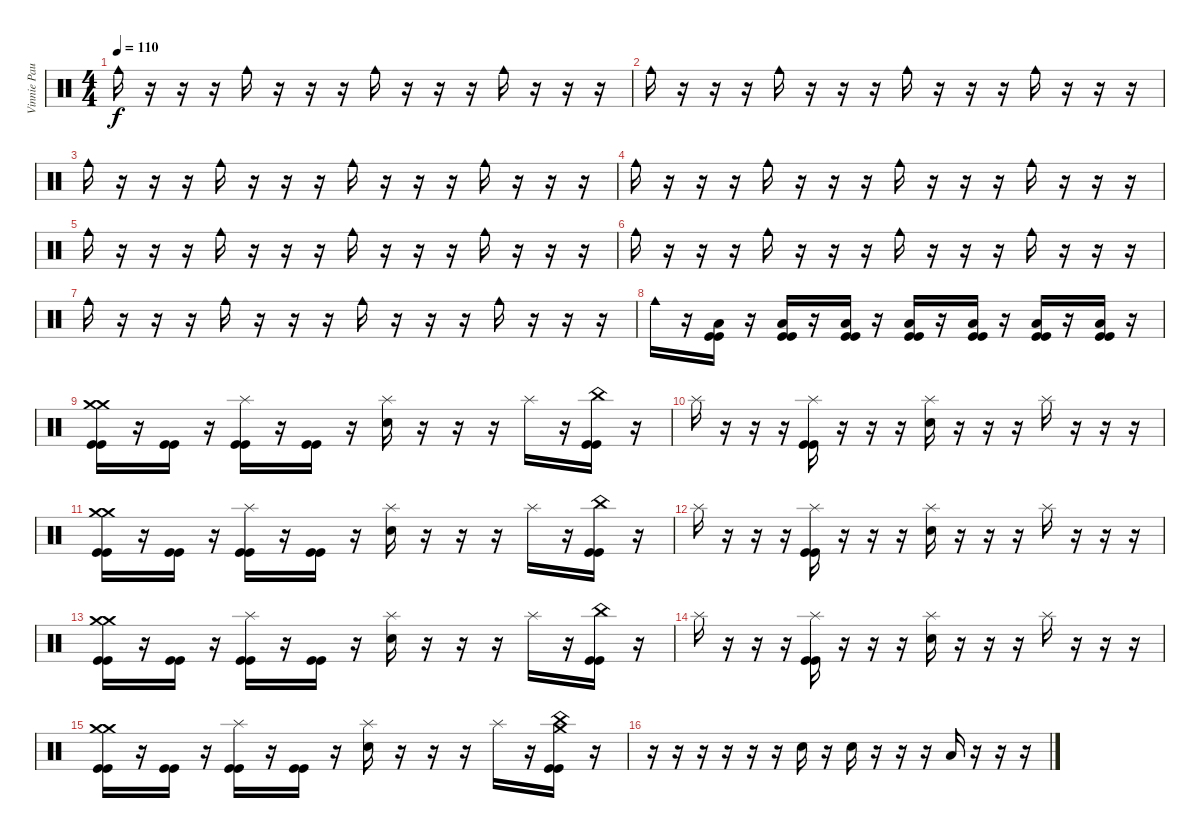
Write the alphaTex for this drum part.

\track ("Vinnie Paul " "Vinnie Pau") {instrument percussion}
\staff {score}
\articulation defaults
\ts (4 4)
\tempo 110
\clef neutral
\ks c "Cowbell medium (hit)".16{dy f}
r.16 r.16 r.16 "Cowbell medium (hit)".16 r.16 r.16 r.16 "Cowbell medium (hit)".16 r.16 r.16 r.16 "Cowbell medium (hit)".16 r.16 r.16 r.16 |
"Cowbell medium (hit)".16 r.16 r.16 r.16 "Cowbell medium (hit)".16 r.16 r.16 r.16 "Cowbell medium (hit)".16 r.16 r.16 r.16 "Cowbell medium (hit)".16 r.16 r.16 r.16 |
"Cowbell medium (hit)".16 r.16 r.16 r.16 "Cowbell medium (hit)".16 r.16 r.16 r.16 "Cowbell medium (hit)".16 r.16 r.16 r.16 "Cowbell medium (hit)".16 r.16 r.16 r.16 |
"Cowbell medium (hit)".16 r.16 r.16 r.16 "Cowbell medium (hit)".16 r.16 r.16 r.16 "Cowbell medium (hit)".16 r.16 r.16 r.16 "Cowbell medium (hit)".16 r.16 r.16 r.16 |
"Cowbell medium (hit)".16 r.16 r.16 r.16 "Cowbell medium (hit)".16 r.16 r.16 r.16 "Cowbell medium (hit)".16 r.16 r.16 r.16 "Cowbell medium (hit)".16 r.16 r.16 r.16 |
"Cowbell medium (hit)".16 r.16 r.16 r.16 "Cowbell medium (hit)".16 r.16 r.16 r.16 "Cowbell medium (hit)".16 r.16 r.16 r.16 "Cowbell medium (hit)".16 r.16 r.16 r.16 |
"Cowbell medium (hit)".16 r.16 r.16 r.16 "Cowbell medium (hit)".16 r.16 r.16 r.16 "Cowbell medium (hit)".16 r.16 r.16 r.16 "Cowbell medium (hit)".16 r.16 r.16 r.16 |
"Cowbell medium (hit)".16 r.16 ("Low Tom (hit)" "Kick (hit)" "Kick (hit)").16 r.16 ("Low Tom (hit)" "Kick (hit)" "Kick (hit)").16 r.16 ("Low Tom (hit)" "Kick (hit)" "Kick (hit)").16 r.16 ("Low Tom (hit)" "Kick (hit)" "Kick (hit)").16 r.16 ("Low Tom (hit)" "Kick (hit)" "Kick (hit)").16 r.16 ("Low Tom (hit)" "Kick (hit)" "Kick (hit)").16 r.16 ("Low Tom (hit)" "Kick (hit)" "Kick (hit)").16 r.16 |
("Crash medium (hit)" "Crash medium (hit)" "Kick (hit)" "Kick (hit)").16 r.16 ("Kick (hit)" "Kick (hit)").16 r.16 ("Splash (hit)" "Kick (hit)" "Kick (hit)").16 r.16 ("Kick (hit)" "Kick (hit)").16 r.16 ("Splash (hit)" "Snare (hit) 2").16 r.16 r.16 r.16 "Splash (hit)".16 r.16 ("China (hit)" "Kick (hit)" "Kick (hit)").16 r.16 |
"Splash (hit)".16 r.16 r.16 r.16 ("Splash (hit)" "Kick (hit)" "Kick (hit)").16 r.16 r.16 r.16 ("Splash (hit)" "Snare (hit) 2").16 r.16 r.16 r.16 "Splash (hit)".16 r.16 r.16 r.16 |
("Crash medium (hit)" "Crash medium (hit)" "Kick (hit)" "Kick (hit)").16 r.16 ("Kick (hit)" "Kick (hit)").16 r.16 ("Splash (hit)" "Kick (hit)" "Kick (hit)").16 r.16 ("Kick (hit)" "Kick (hit)").16 r.16 ("Splash (hit)" "Snare (hit) 2").16 r.16 r.16 r.16 "Splash (hit)".16 r.16 ("China (hit)" "Kick (hit)" "Kick (hit)").16 r.16 |
"Splash (hit)".16 r.16 r.16 r.16 ("Splash (hit)" "Kick (hit)" "Kick (hit)").16 r.16 r.16 r.16 ("Splash (hit)" "Snare (hit) 2").16 r.16 r.16 r.16 "Splash (hit)".16 r.16 r.16 r.16 |
("Crash medium (hit)" "Crash medium (hit)" "Kick (hit)" "Kick (hit)").16 r.16 ("Kick (hit)" "Kick (hit)").16 r.16 ("Splash (hit)" "Kick (hit)" "Kick (hit)").16 r.16 ("Kick (hit)" "Kick (hit)").16 r.16 ("Splash (hit)" "Snare (hit) 2").16 r.16 r.16 r.16 "Splash (hit)".16 r.16 ("China (hit)" "Kick (hit)" "Kick (hit)").16 r.16 |
"Splash (hit)".16 r.16 r.16 r.16 ("Splash (hit)" "Kick (hit)" "Kick (hit)").16 r.16 r.16 r.16 ("Splash (hit)" "Snare (hit) 2").16 r.16 r.16 r.16 "Splash (hit)".16 r.16 r.16 r.16 |
("Crash medium (hit)" "Crash medium (hit)" "Kick (hit)" "Kick (hit)").16 r.16 ("Kick (hit)" "Kick (hit)").16 r.16 ("Splash (hit)" "Kick (hit)" "Kick (hit)").16 r.16 ("Kick (hit)" "Kick (hit)").16 r.16 ("Splash (hit)" "Snare (hit) 2").16 r.16 r.16 r.16 "Splash (hit)".16 r.16 ("Crash medium (hit)" "China (hit)" "Kick (hit)" "Kick (hit)").16 r.16 |
r.16 r.16 r.16 r.16 r.16 r.16 "Snare (hit) 2".16 r.16 "Snare (hit) 2".16 r.16 r.16 r.16 "Low Tom (hit)".16 r.16 r.16 r.16
